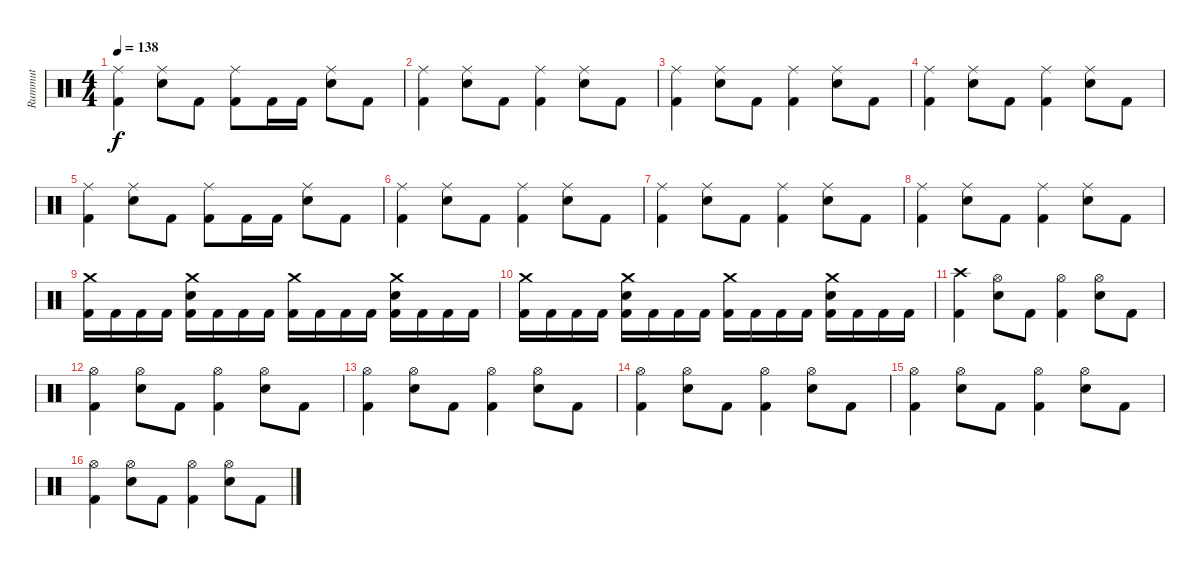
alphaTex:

\track ("Rummut" "Rummut") {instrument percussion}
\staff {score}
\articulation defaults
\ts (4 4)
\tempo 138
\clef neutral
\ks c
("Ride (middle)" "Kick (hit) 2").4{dy f} ("Ride (middle)" "Snare (hit) 2").8 "Kick (hit) 2".8 ("Ride (middle)" "Kick (hit) 2").8 "Kick (hit) 2".16 "Kick (hit) 2".16 ("Ride (middle)" "Snare (hit) 2").8 "Kick (hit) 2".8 |
("Ride (middle)" "Kick (hit) 2").4 ("Ride (middle)" "Snare (hit) 2").8 "Kick (hit) 2".8 ("Ride (middle)" "Kick (hit) 2").4 ("Ride (middle)" "Snare (hit) 2").8 "Kick (hit) 2".8 |
("Ride (middle)" "Kick (hit) 2").4 ("Ride (middle)" "Snare (hit) 2").8 "Kick (hit) 2".8 ("Ride (middle)" "Kick (hit) 2").4 ("Ride (middle)" "Snare (hit) 2").8 "Kick (hit) 2".8 |
("Ride (middle)" "Kick (hit) 2").4 ("Ride (middle)" "Snare (hit) 2").8 "Kick (hit) 2".8 ("Ride (middle)" "Kick (hit) 2").4 ("Ride (middle)" "Snare (hit) 2").8 "Kick (hit) 2".8 |
("Ride (middle)" "Kick (hit) 2").4 ("Ride (middle)" "Snare (hit) 2").8 "Kick (hit) 2".8 ("Ride (middle)" "Kick (hit) 2").8 "Kick (hit) 2".16 "Kick (hit) 2".16 ("Ride (middle)" "Snare (hit) 2").8 "Kick (hit) 2".8 |
("Ride (middle)" "Kick (hit) 2").4 ("Ride (middle)" "Snare (hit) 2").8 "Kick (hit) 2".8 ("Ride (middle)" "Kick (hit) 2").4 ("Ride (middle)" "Snare (hit) 2").8 "Kick (hit) 2".8 |
("Ride (middle)" "Kick (hit) 2").4 ("Ride (middle)" "Snare (hit) 2").8 "Kick (hit) 2".8 ("Ride (middle)" "Kick (hit) 2").4 ("Ride (middle)" "Snare (hit) 2").8 "Kick (hit) 2".8 |
("Ride (middle)" "Kick (hit) 2").4 ("Ride (middle)" "Snare (hit) 2").8 "Kick (hit) 2".8 ("Ride (middle)" "Kick (hit) 2").4 ("Ride (middle)" "Snare (hit) 2").8 "Kick (hit) 2".8 |
("Crash medium (hit)" "Kick (hit) 2").16 "Kick (hit) 2".16 "Kick (hit) 2".16 "Kick (hit) 2".16 ("Crash medium (hit)" "Snare (hit) 2" "Kick (hit) 2").16 "Kick (hit) 2".16 "Kick (hit) 2".16 "Kick (hit) 2".16 ("Crash medium (hit)" "Kick (hit) 2").16 "Kick (hit) 2".16 "Kick (hit) 2".16 "Kick (hit) 2".16 ("Crash medium (hit)" "Snare (hit) 2" "Kick (hit) 2").16 "Kick (hit) 2".16 "Kick (hit) 2".16 "Kick (hit) 2".16 |
("Crash medium (hit)" "Kick (hit) 2").16 "Kick (hit) 2".16 "Kick (hit) 2".16 "Kick (hit) 2".16 ("Crash medium (hit)" "Snare (hit) 2" "Kick (hit) 2").16 "Kick (hit) 2".16 "Kick (hit) 2".16 "Kick (hit) 2".16 ("Crash medium (hit)" "Kick (hit) 2").16 "Kick (hit) 2".16 "Kick (hit) 2".16 "Kick (hit) 2".16 ("Crash medium (hit)" "Snare (hit) 2" "Kick (hit) 2").16 "Kick (hit) 2".16 "Kick (hit) 2".16 "Kick (hit) 2".16 |
("Crash high (hit)" "Kick (hit) 2").4 ("Hi-Hat (open)" "Snare (hit) 2").8 "Kick (hit) 2".8 ("Hi-Hat (open)" "Kick (hit) 2").4 ("Hi-Hat (open)" "Snare (hit) 2").8 "Kick (hit) 2".8 |
("Hi-Hat (open)" "Kick (hit) 2").4 ("Hi-Hat (open)" "Snare (hit) 2").8 "Kick (hit) 2".8 ("Hi-Hat (open)" "Kick (hit) 2").4 ("Hi-Hat (open)" "Snare (hit) 2").8 "Kick (hit) 2".8 |
("Hi-Hat (open)" "Kick (hit) 2").4 ("Hi-Hat (open)" "Snare (hit) 2").8 "Kick (hit) 2".8 ("Hi-Hat (open)" "Kick (hit) 2").4 ("Hi-Hat (open)" "Snare (hit) 2").8 "Kick (hit) 2".8 |
("Hi-Hat (open)" "Kick (hit) 2").4 ("Hi-Hat (open)" "Snare (hit) 2").8 "Kick (hit) 2".8 ("Hi-Hat (open)" "Kick (hit) 2").4 ("Hi-Hat (open)" "Snare (hit) 2").8 "Kick (hit) 2".8 |
("Hi-Hat (open)" "Kick (hit) 2").4 ("Hi-Hat (open)" "Snare (hit) 2").8 "Kick (hit) 2".8 ("Hi-Hat (open)" "Kick (hit) 2").4 ("Hi-Hat (open)" "Snare (hit) 2").8 "Kick (hit) 2".8 |
("Hi-Hat (open)" "Kick (hit) 2").4 ("Hi-Hat (open)" "Snare (hit) 2").8 "Kick (hit) 2".8 ("Hi-Hat (open)" "Kick (hit) 2").4 ("Hi-Hat (open)" "Snare (hit) 2").8 "Kick (hit) 2".8
